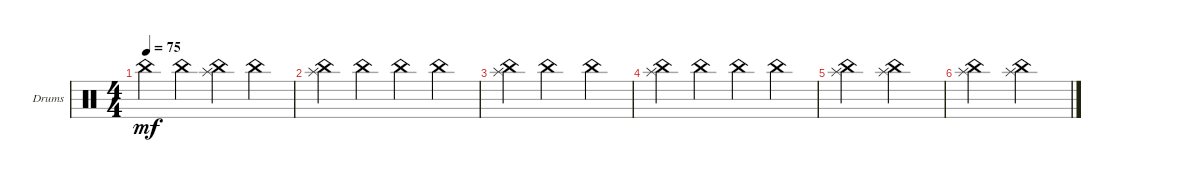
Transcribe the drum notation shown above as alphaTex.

\defaultSystemsLayout 4
\bracketExtendMode groupsimilarinstruments
\firstSystemTrackNameOrientation horizontal
\otherSystemsTrackNameOrientation horizontal
\track ("Drumkit2" "Drums") {instrument percussion}
\staff {score}
\articulation defaults
\ts (4 4)
\tempo 75
\clef neutral
\scale
0.333333
\ks c "China (hit)".4{dy mf} "China (hit)".4
("Splash (hit)" "China (hit)").4 "China (hit)".4 |
\scale
0.333333 ("Splash (hit)" "China (hit)").4 "China (hit)".4 "China (hit)".4 "China (hit)".4 |
\scale
0.333333 ("Splash (hit)" "China (hit)").4 "China (hit)".2 "China (hit)".4 |
\scale
0.333333 ("Splash (hit)" "China (hit)").4 "China (hit)".4 "China (hit)".4 "China (hit)".4 |
\scale
0.333333 ("Splash (hit)" "China (hit)").2 ("China (hit)" "Splash (hit)").2 |
\scale
0.333333 ("China (hit)" "Splash (hit)").2 ("China (hit)" "Splash (hit)").2 |
\scale
0.333333
